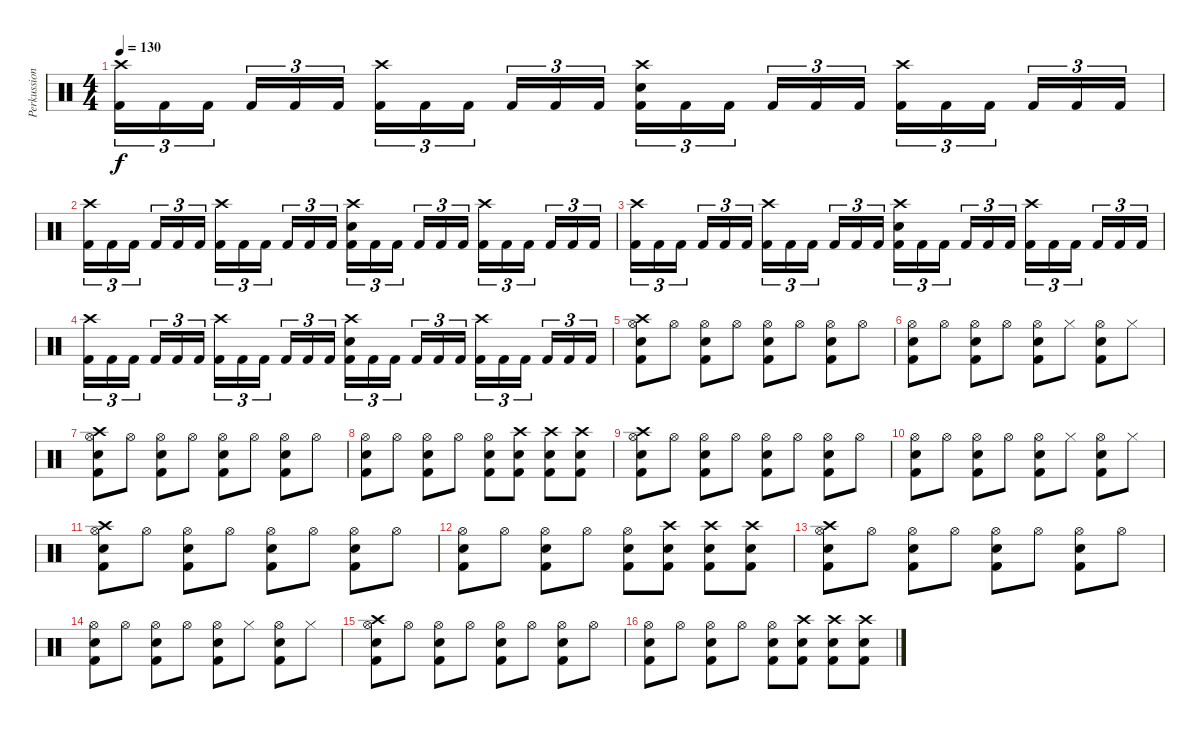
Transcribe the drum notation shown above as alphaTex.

\track ("Perkussion" "Perkussion") {instrument percussion}
\staff {score}
\articulation defaults
\ts (4 4)
\tempo 130
\clef neutral
\ks c
("Crash high (hit)" "Kick (hit) 2").16{tu (3 2) dy f} "Kick (hit) 2".16{tu (3 2)} "Kick (hit) 2".16{tu (3 2)} "Kick (hit) 2".16{tu (3 2)} "Kick (hit) 2".16{tu (3 2)} "Kick (hit) 2".16{tu (3 2)} ("Crash high (hit)" "Kick (hit) 2").16{tu (3 2)} "Kick (hit) 2".16{tu (3 2)} "Kick (hit) 2".16{tu (3 2)} "Kick (hit) 2".16{tu (3 2)} "Kick (hit) 2".16{tu (3 2)} "Kick (hit) 2".16{tu (3 2)} ("Crash high (hit)" "Electric Snare (hit)" "Kick (hit) 2").16{tu (3 2)} "Kick (hit) 2".16{tu (3 2)} "Kick (hit) 2".16{tu (3 2)} "Kick (hit) 2".16{tu (3 2)} "Kick (hit) 2".16{tu (3 2)} "Kick (hit) 2".16{tu (3 2)} ("Crash high (hit)" "Kick (hit) 2").16{tu (3 2)} "Kick (hit) 2".16{tu (3 2)} "Kick (hit) 2".16{tu (3 2)} "Kick (hit) 2".16{tu (3 2)} "Kick (hit) 2".16{tu (3 2)} "Kick (hit) 2".16{tu (3 2)} |
("Crash high (hit)" "Kick (hit) 2").16{tu (3 2)} "Kick (hit) 2".16{tu (3 2)} "Kick (hit) 2".16{tu (3 2)} "Kick (hit) 2".16{tu (3 2)} "Kick (hit) 2".16{tu (3 2)} "Kick (hit) 2".16{tu (3 2)} ("Crash high (hit)" "Kick (hit) 2").16{tu (3 2)} "Kick (hit) 2".16{tu (3 2)} "Kick (hit) 2".16{tu (3 2)} "Kick (hit) 2".16{tu (3 2)} "Kick (hit) 2".16{tu (3 2)} "Kick (hit) 2".16{tu (3 2)} ("Crash high (hit)" "Electric Snare (hit)" "Kick (hit) 2").16{tu (3 2)} "Kick (hit) 2".16{tu (3 2)} "Kick (hit) 2".16{tu (3 2)} "Kick (hit) 2".16{tu (3 2)} "Kick (hit) 2".16{tu (3 2)} "Kick (hit) 2".16{tu (3 2)} ("Crash high (hit)" "Kick (hit) 2").16{tu (3 2)} "Kick (hit) 2".16{tu (3 2)} "Kick (hit) 2".16{tu (3 2)} "Kick (hit) 2".16{tu (3 2)} "Kick (hit) 2".16{tu (3 2)} "Kick (hit) 2".16{tu (3 2)} |
("Crash high (hit)" "Kick (hit) 2").16{tu (3 2)} "Kick (hit) 2".16{tu (3 2)} "Kick (hit) 2".16{tu (3 2)} "Kick (hit) 2".16{tu (3 2)} "Kick (hit) 2".16{tu (3 2)} "Kick (hit) 2".16{tu (3 2)} ("Crash high (hit)" "Kick (hit) 2").16{tu (3 2)} "Kick (hit) 2".16{tu (3 2)} "Kick (hit) 2".16{tu (3 2)} "Kick (hit) 2".16{tu (3 2)} "Kick (hit) 2".16{tu (3 2)} "Kick (hit) 2".16{tu (3 2)} ("Crash high (hit)" "Electric Snare (hit)" "Kick (hit) 2").16{tu (3 2)} "Kick (hit) 2".16{tu (3 2)} "Kick (hit) 2".16{tu (3 2)} "Kick (hit) 2".16{tu (3 2)} "Kick (hit) 2".16{tu (3 2)} "Kick (hit) 2".16{tu (3 2)} ("Crash high (hit)" "Kick (hit) 2").16{tu (3 2)} "Kick (hit) 2".16{tu (3 2)} "Kick (hit) 2".16{tu (3 2)} "Kick (hit) 2".16{tu (3 2)} "Kick (hit) 2".16{tu (3 2)} "Kick (hit) 2".16{tu (3 2)} |
("Crash high (hit)" "Kick (hit) 2").16{tu (3 2)} "Kick (hit) 2".16{tu (3 2)} "Kick (hit) 2".16{tu (3 2)} "Kick (hit) 2".16{tu (3 2)} "Kick (hit) 2".16{tu (3 2)} "Kick (hit) 2".16{tu (3 2)} ("Crash high (hit)" "Kick (hit) 2").16{tu (3 2)} "Kick (hit) 2".16{tu (3 2)} "Kick (hit) 2".16{tu (3 2)} "Kick (hit) 2".16{tu (3 2)} "Kick (hit) 2".16{tu (3 2)} "Kick (hit) 2".16{tu (3 2)} ("Crash high (hit)" "Electric Snare (hit)" "Kick (hit) 2").16{tu (3 2)} "Kick (hit) 2".16{tu (3 2)} "Kick (hit) 2".16{tu (3 2)} "Kick (hit) 2".16{tu (3 2)} "Kick (hit) 2".16{tu (3 2)} "Kick (hit) 2".16{tu (3 2)} ("Crash high (hit)" "Kick (hit) 2").16{tu (3 2)} "Kick (hit) 2".16{tu (3 2)} "Kick (hit) 2".16{tu (3 2)} "Kick (hit) 2".16{tu (3 2)} "Kick (hit) 2".16{tu (3 2)} "Kick (hit) 2".16{tu (3 2)} |
("Hi-Hat (open)" "Crash high (hit)" "Electric Snare (hit)" "Kick (hit) 2").8 "Hi-Hat (open)".8 ("Hi-Hat (open)" "Electric Snare (hit)" "Kick (hit) 2").8 "Hi-Hat (open)".8 ("Hi-Hat (open)" "Electric Snare (hit)" "Kick (hit) 2").8 "Hi-Hat (open)".8 ("Hi-Hat (open)" "Electric Snare (hit)" "Kick (hit) 2").8 "Hi-Hat (open)".8 |
("Hi-Hat (open)" "Electric Snare (hit)" "Kick (hit) 2").8 "Hi-Hat (open)".8 ("Hi-Hat (open)" "Electric Snare (hit)" "Kick (hit) 2").8 "Hi-Hat (open)".8 ("Hi-Hat (open)" "Electric Snare (hit)" "Kick (hit) 2").8 "Hi-Hat (closed)".8 ("Hi-Hat (open)" "Electric Snare (hit)" "Kick (hit) 2").8 "Hi-Hat (closed)".8 |
("Hi-Hat (open)" "Crash high (hit)" "Electric Snare (hit)" "Kick (hit) 2").8 "Hi-Hat (open)".8 ("Hi-Hat (open)" "Electric Snare (hit)" "Kick (hit) 2").8 "Hi-Hat (open)".8 ("Hi-Hat (open)" "Electric Snare (hit)" "Kick (hit) 2").8 "Hi-Hat (open)".8 ("Hi-Hat (open)" "Electric Snare (hit)" "Kick (hit) 2").8 "Hi-Hat (open)".8 |
("Hi-Hat (open)" "Electric Snare (hit)" "Kick (hit) 2").8 "Hi-Hat (open)".8 ("Hi-Hat (open)" "Electric Snare (hit)" "Kick (hit) 2").8 "Hi-Hat (open)".8 ("Hi-Hat (open)" "Electric Snare (hit)" "Kick (hit) 2").8 ("Crash high (hit)" "Electric Snare (hit)" "Kick (hit) 2").8 ("Crash high (hit)" "Electric Snare (hit)" "Kick (hit) 2").8 ("Crash high (hit)" "Electric Snare (hit)" "Kick (hit) 2").8 |
("Hi-Hat (open)" "Crash high (hit)" "Electric Snare (hit)" "Kick (hit) 2").8 "Hi-Hat (open)".8 ("Hi-Hat (open)" "Electric Snare (hit)" "Kick (hit) 2").8 "Hi-Hat (open)".8 ("Hi-Hat (open)" "Electric Snare (hit)" "Kick (hit) 2").8 "Hi-Hat (open)".8 ("Hi-Hat (open)" "Electric Snare (hit)" "Kick (hit) 2").8 "Hi-Hat (open)".8 |
("Hi-Hat (open)" "Electric Snare (hit)" "Kick (hit) 2").8 "Hi-Hat (open)".8 ("Hi-Hat (open)" "Electric Snare (hit)" "Kick (hit) 2").8 "Hi-Hat (open)".8 ("Hi-Hat (open)" "Electric Snare (hit)" "Kick (hit) 2").8 "Hi-Hat (closed)".8 ("Hi-Hat (open)" "Electric Snare (hit)" "Kick (hit) 2").8 "Hi-Hat (closed)".8 |
("Hi-Hat (open)" "Crash high (hit)" "Electric Snare (hit)" "Kick (hit) 2").8 "Hi-Hat (open)".8 ("Hi-Hat (open)" "Electric Snare (hit)" "Kick (hit) 2").8 "Hi-Hat (open)".8 ("Hi-Hat (open)" "Electric Snare (hit)" "Kick (hit) 2").8 "Hi-Hat (open)".8 ("Hi-Hat (open)" "Electric Snare (hit)" "Kick (hit) 2").8 "Hi-Hat (open)".8 |
("Hi-Hat (open)" "Electric Snare (hit)" "Kick (hit) 2").8 "Hi-Hat (open)".8 ("Hi-Hat (open)" "Electric Snare (hit)" "Kick (hit) 2").8 "Hi-Hat (open)".8 ("Hi-Hat (open)" "Electric Snare (hit)" "Kick (hit) 2").8 ("Crash high (hit)" "Electric Snare (hit)" "Kick (hit) 2").8 ("Crash high (hit)" "Electric Snare (hit)" "Kick (hit) 2").8 ("Crash high (hit)" "Electric Snare (hit)" "Kick (hit) 2").8 |
("Hi-Hat (open)" "Crash high (hit)" "Electric Snare (hit)" "Kick (hit) 2").8 "Hi-Hat (open)".8 ("Hi-Hat (open)" "Electric Snare (hit)" "Kick (hit) 2").8 "Hi-Hat (open)".8 ("Hi-Hat (open)" "Electric Snare (hit)" "Kick (hit) 2").8 "Hi-Hat (open)".8 ("Hi-Hat (open)" "Electric Snare (hit)" "Kick (hit) 2").8 "Hi-Hat (open)".8 |
("Hi-Hat (open)" "Electric Snare (hit)" "Kick (hit) 2").8 "Hi-Hat (open)".8 ("Hi-Hat (open)" "Electric Snare (hit)" "Kick (hit) 2").8 "Hi-Hat (open)".8 ("Hi-Hat (open)" "Electric Snare (hit)" "Kick (hit) 2").8 "Hi-Hat (closed)".8 ("Hi-Hat (open)" "Electric Snare (hit)" "Kick (hit) 2").8 "Hi-Hat (closed)".8 |
("Hi-Hat (open)" "Crash high (hit)" "Electric Snare (hit)" "Kick (hit) 2").8 "Hi-Hat (open)".8 ("Hi-Hat (open)" "Electric Snare (hit)" "Kick (hit) 2").8 "Hi-Hat (open)".8 ("Hi-Hat (open)" "Electric Snare (hit)" "Kick (hit) 2").8 "Hi-Hat (open)".8 ("Hi-Hat (open)" "Electric Snare (hit)" "Kick (hit) 2").8 "Hi-Hat (open)".8 |
("Hi-Hat (open)" "Electric Snare (hit)" "Kick (hit) 2").8 "Hi-Hat (open)".8 ("Hi-Hat (open)" "Electric Snare (hit)" "Kick (hit) 2").8 "Hi-Hat (open)".8 ("Hi-Hat (open)" "Electric Snare (hit)" "Kick (hit) 2").8 ("Crash high (hit)" "Electric Snare (hit)" "Kick (hit) 2").8 ("Crash high (hit)" "Electric Snare (hit)" "Kick (hit) 2").8 ("Crash high (hit)" "Electric Snare (hit)" "Kick (hit) 2").8
